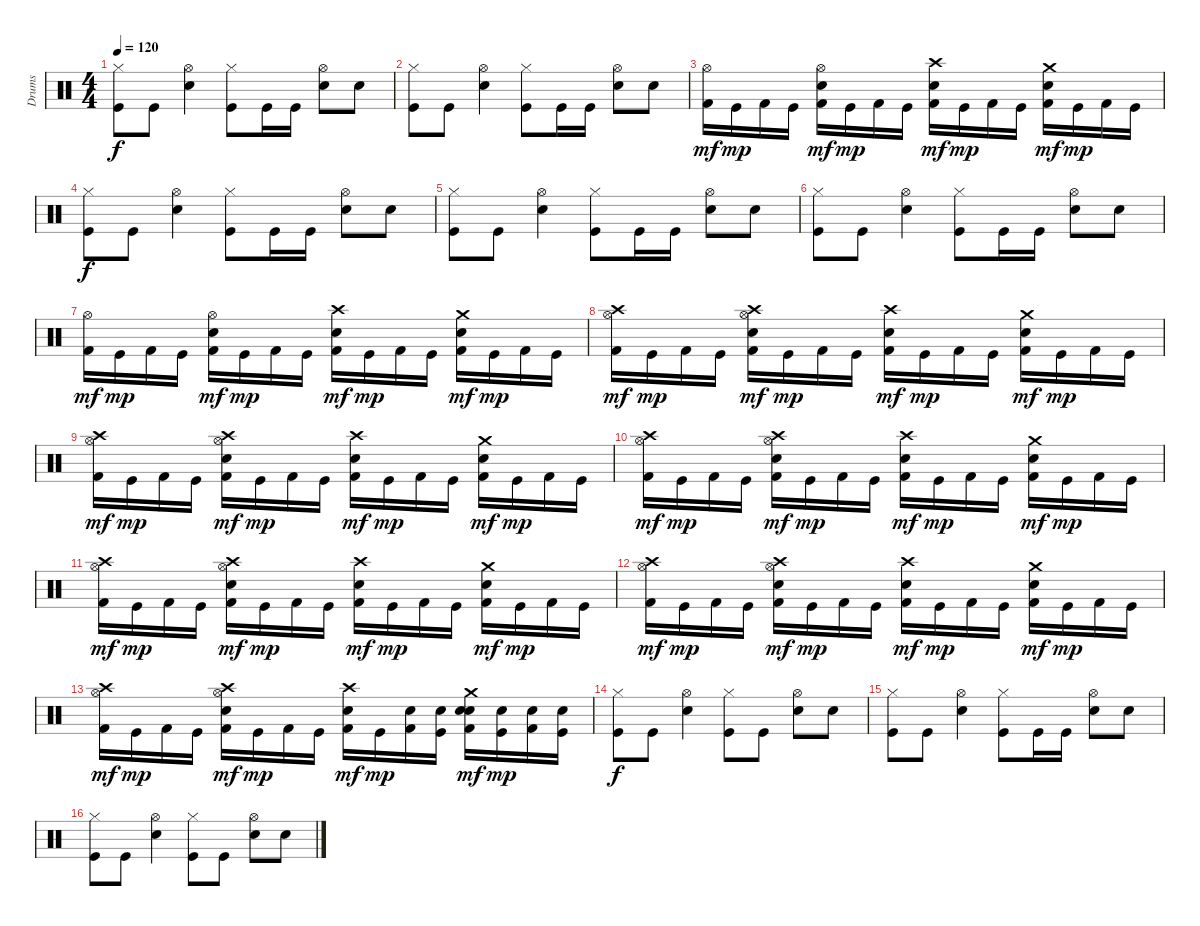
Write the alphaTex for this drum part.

\track ("Drums" "Drums") {instrument percussion}
\staff {score}
\articulation defaults
\ts (4 4)
\tempo 120
\clef neutral
\ks c
("Hi-Hat (closed)" "Kick (hit)").8{dy f} "Kick (hit)".8 ("Hi-Hat (open)" "Snare (hit) 2").4 ("Hi-Hat (closed)" "Kick (hit)").8 "Kick (hit)".16 "Kick (hit)".16 ("Hi-Hat (open)" "Snare (hit) 2").8 "Snare (hit) 2".8 |
("Hi-Hat (closed)" "Kick (hit)").8 "Kick (hit)".8 ("Hi-Hat (open)" "Snare (hit) 2").4 ("Hi-Hat (closed)" "Kick (hit)").8 "Kick (hit)".16 "Kick (hit)".16 ("Hi-Hat (open)" "Snare (hit) 2").8 "Snare (hit) 2".8 |
("Hi-Hat (open)" "Kick (hit) 2").16{dy mf} "Kick (hit)".16{dy mp} "Kick (hit) 2".16 "Kick (hit)".16 ("Hi-Hat (open)" "Snare (hit) 2" "Kick (hit) 2").16{dy mf} "Kick (hit)".16{dy mp} "Kick (hit) 2".16 "Kick (hit)".16 ("Crash high (hit)" "Snare (hit) 2" "Kick (hit) 2").16{dy mf} "Kick (hit)".16{dy mp} "Kick (hit) 2".16 "Kick (hit)".16 ("Crash medium (hit)" "Snare (hit) 2" "Kick (hit) 2").16{dy mf} "Kick (hit)".16{dy mp} "Kick (hit) 2".16 "Kick (hit)".16 |
("Hi-Hat (closed)" "Kick (hit)").8{dy f} "Kick (hit)".8 ("Hi-Hat (open)" "Snare (hit) 2").4 ("Hi-Hat (closed)" "Kick (hit)").8 "Kick (hit)".16 "Kick (hit)".16 ("Hi-Hat (open)" "Snare (hit) 2").8 "Snare (hit) 2".8 |
("Hi-Hat (closed)" "Kick (hit)").8 "Kick (hit)".8 ("Hi-Hat (open)" "Snare (hit) 2").4 ("Hi-Hat (closed)" "Kick (hit)").8 "Kick (hit)".16 "Kick (hit)".16 ("Hi-Hat (open)" "Snare (hit) 2").8 "Snare (hit) 2".8 |
("Hi-Hat (closed)" "Kick (hit)").8 "Kick (hit)".8 ("Hi-Hat (open)" "Snare (hit) 2").4 ("Hi-Hat (closed)" "Kick (hit)").8 "Kick (hit)".16 "Kick (hit)".16 ("Hi-Hat (open)" "Snare (hit) 2").8 "Snare (hit) 2".8 |
("Hi-Hat (open)" "Kick (hit) 2").16{dy mf} "Kick (hit)".16{dy mp} "Kick (hit) 2".16 "Kick (hit)".16 ("Hi-Hat (open)" "Snare (hit) 2" "Kick (hit) 2").16{dy mf} "Kick (hit)".16{dy mp} "Kick (hit) 2".16 "Kick (hit)".16 ("Crash high (hit)" "Snare (hit) 2" "Kick (hit) 2").16{dy mf} "Kick (hit)".16{dy mp} "Kick (hit) 2".16 "Kick (hit)".16 ("Crash medium (hit)" "Snare (hit) 2" "Kick (hit) 2").16{dy mf} "Kick (hit)".16{dy mp} "Kick (hit) 2".16 "Kick (hit)".16 |
("Crash high (hit)" "Hi-Hat (open)" "Kick (hit) 2").16{dy mf} "Kick (hit)".16{dy mp} "Kick (hit) 2".16 "Kick (hit)".16 ("Crash high (hit)" "Hi-Hat (open)" "Snare (hit) 2" "Kick (hit) 2").16{dy mf} "Kick (hit)".16{dy mp} "Kick (hit) 2".16 "Kick (hit)".16 ("Crash high (hit)" "Snare (hit) 2" "Kick (hit) 2").16{dy mf} "Kick (hit)".16{dy mp} "Kick (hit) 2".16 "Kick (hit)".16 ("Crash medium (hit)" "Snare (hit) 2" "Kick (hit) 2").16{dy mf} "Kick (hit)".16{dy mp} "Kick (hit) 2".16 "Kick (hit)".16 |
("Crash high (hit)" "Hi-Hat (open)" "Kick (hit) 2").16{dy mf} "Kick (hit)".16{dy mp} "Kick (hit) 2".16 "Kick (hit)".16 ("Crash high (hit)" "Hi-Hat (open)" "Snare (hit) 2" "Kick (hit) 2").16{dy mf} "Kick (hit)".16{dy mp} "Kick (hit) 2".16 "Kick (hit)".16 ("Crash high (hit)" "Snare (hit) 2" "Kick (hit) 2").16{dy mf} "Kick (hit)".16{dy mp} "Kick (hit) 2".16 "Kick (hit)".16 ("Crash medium (hit)" "Snare (hit) 2" "Kick (hit) 2").16{dy mf} "Kick (hit)".16{dy mp} "Kick (hit) 2".16 "Kick (hit)".16 |
("Crash high (hit)" "Hi-Hat (open)" "Kick (hit) 2").16{dy mf} "Kick (hit)".16{dy mp} "Kick (hit) 2".16 "Kick (hit)".16 ("Crash high (hit)" "Hi-Hat (open)" "Snare (hit) 2" "Kick (hit) 2").16{dy mf} "Kick (hit)".16{dy mp} "Kick (hit) 2".16 "Kick (hit)".16 ("Crash high (hit)" "Snare (hit) 2" "Kick (hit) 2").16{dy mf} "Kick (hit)".16{dy mp} "Kick (hit) 2".16 "Kick (hit)".16 ("Crash medium (hit)" "Snare (hit) 2" "Kick (hit) 2").16{dy mf} "Kick (hit)".16{dy mp} "Kick (hit) 2".16 "Kick (hit)".16 |
("Crash high (hit)" "Hi-Hat (open)" "Kick (hit) 2").16{dy mf} "Kick (hit)".16{dy mp} "Kick (hit) 2".16 "Kick (hit)".16 ("Crash high (hit)" "Hi-Hat (open)" "Snare (hit) 2" "Kick (hit) 2").16{dy mf} "Kick (hit)".16{dy mp} "Kick (hit) 2".16 "Kick (hit)".16 ("Crash high (hit)" "Snare (hit) 2" "Kick (hit) 2").16{dy mf} "Kick (hit)".16{dy mp} "Kick (hit) 2".16 "Kick (hit)".16 ("Crash medium (hit)" "Snare (hit) 2" "Kick (hit) 2").16{dy mf} "Kick (hit)".16{dy mp} "Kick (hit) 2".16 "Kick (hit)".16 |
("Crash high (hit)" "Hi-Hat (open)" "Kick (hit) 2").16{dy mf} "Kick (hit)".16{dy mp} "Kick (hit) 2".16 "Kick (hit)".16 ("Crash high (hit)" "Hi-Hat (open)" "Snare (hit) 2" "Kick (hit) 2").16{dy mf} "Kick (hit)".16{dy mp} "Kick (hit) 2".16 "Kick (hit)".16 ("Crash high (hit)" "Snare (hit) 2" "Kick (hit) 2").16{dy mf} "Kick (hit)".16{dy mp} "Kick (hit) 2".16 "Kick (hit)".16 ("Crash medium (hit)" "Snare (hit) 2" "Kick (hit) 2").16{dy mf} "Kick (hit)".16{dy mp} "Kick (hit) 2".16 "Kick (hit)".16 |
("Crash high (hit)" "Hi-Hat (open)" "Kick (hit) 2").16{dy mf} "Kick (hit)".16{dy mp} "Kick (hit) 2".16 "Kick (hit)".16 ("Crash high (hit)" "Hi-Hat (open)" "Snare (hit) 2" "Kick (hit) 2").16{dy mf} "Kick (hit)".16{dy mp} "Kick (hit) 2".16 "Kick (hit)".16 ("Crash high (hit)" "Snare (hit) 2" "Kick (hit) 2").16{dy mf} "Kick (hit)".16{dy mp} ("Snare (hit) 2" "Kick (hit) 2").16 ("Snare (hit) 2" "Kick (hit)").16 ("Crash medium (hit)" "Snare (hit) 2" "Snare (hit) 2" "Kick (hit) 2").16{dy mf} ("Snare (hit) 2" "Kick (hit)").16{dy mp} ("Snare (hit) 2" "Kick (hit) 2").16 ("Snare (hit) 2" "Kick (hit)").16 |
("Hi-Hat (closed)" "Kick (hit)").8{dy f} "Kick (hit)".8 ("Hi-Hat (open)" "Snare (hit) 2").4 ("Hi-Hat (closed)" "Kick (hit)").8 "Kick (hit)".8 ("Hi-Hat (open)" "Snare (hit) 2").8 "Snare (hit) 2".8 |
("Hi-Hat (closed)" "Kick (hit)").8 "Kick (hit)".8 ("Hi-Hat (open)" "Snare (hit) 2").4 ("Hi-Hat (closed)" "Kick (hit)").8 "Kick (hit)".16 "Kick (hit)".16 ("Hi-Hat (open)" "Snare (hit) 2").8 "Snare (hit) 2".8 |
("Hi-Hat (closed)" "Kick (hit)").8 "Kick (hit)".8 ("Hi-Hat (open)" "Snare (hit) 2").4 ("Hi-Hat (closed)" "Kick (hit)").8 "Kick (hit)".8 ("Hi-Hat (open)" "Snare (hit) 2").8 "Snare (hit) 2".8
